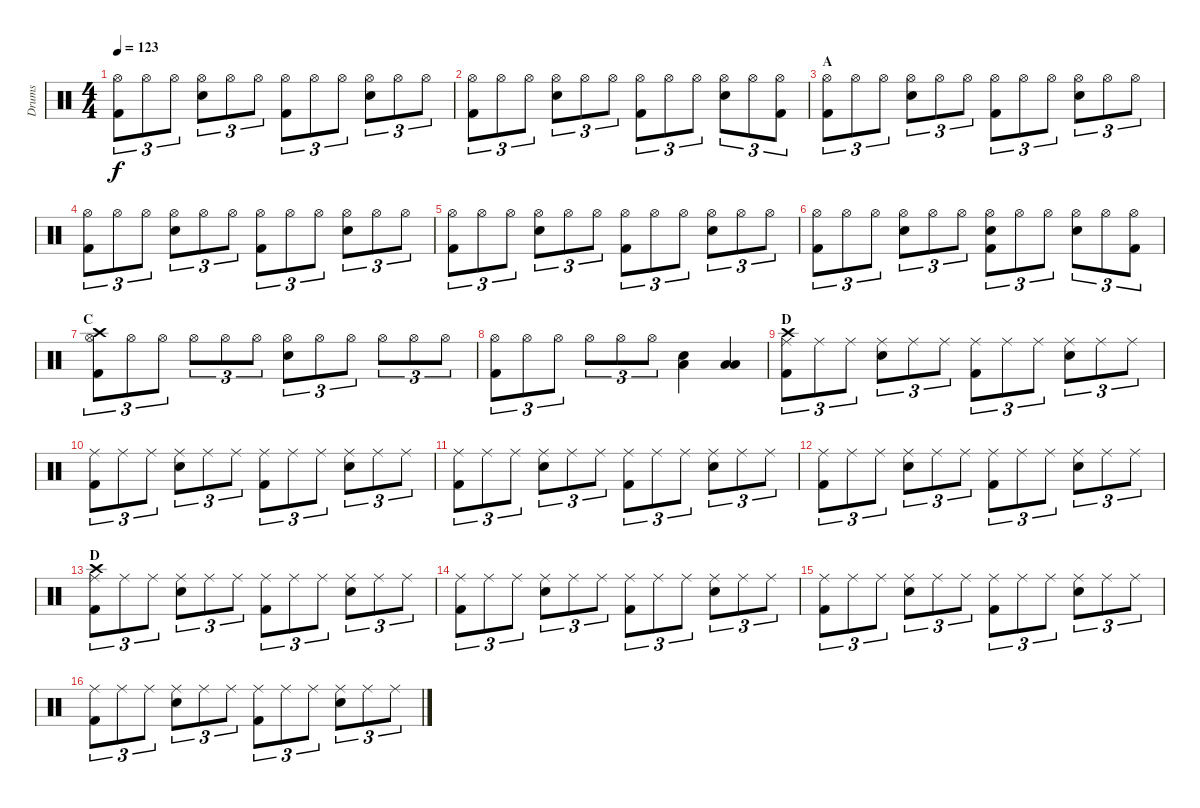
\track ("Drums" "Drums") {instrument percussion}
\staff {score}
\articulation defaults
\ts (4 4)
\tempo 123
\clef neutral
\ks c
("Hi-Hat (open)" "Kick (hit) 2").8{tu (3 2) dy f} "Hi-Hat (open)".8{tu (3 2)} "Hi-Hat (open)".8{tu (3 2)} ("Hi-Hat (open)" "Snare (hit) 2").8{tu (3 2)} "Hi-Hat (open)".8{tu (3 2)} "Hi-Hat (open)".8{tu (3 2)} ("Hi-Hat (open)" "Kick (hit) 2").8{tu (3 2)} "Hi-Hat (open)".8{tu (3 2)} "Hi-Hat (open)".8{tu (3 2)} ("Hi-Hat (open)" "Snare (hit) 2").8{tu (3 2)} "Hi-Hat (open)".8{tu (3 2)} "Hi-Hat (open)".8{tu (3 2)} |
("Hi-Hat (open)" "Kick (hit) 2").8{tu (3 2)} "Hi-Hat (open)".8{tu (3 2)} "Hi-Hat (open)".8{tu (3 2)} ("Hi-Hat (open)" "Snare (hit) 2").8{tu (3 2)} "Hi-Hat (open)".8{tu (3 2)} "Hi-Hat (open)".8{tu (3 2)} ("Hi-Hat (open)" "Kick (hit) 2").8{tu (3 2)} "Hi-Hat (open)".8{tu (3 2)} "Hi-Hat (open)".8{tu (3 2)} ("Hi-Hat (open)" "Snare (hit) 2").8{tu (3 2)} "Hi-Hat (open)".8{tu (3 2)} ("Hi-Hat (open)" "Kick (hit) 2").8{tu (3 2)} |
\section ("" "A")
("Hi-Hat (open)" "Kick (hit) 2").8{tu (3 2)} "Hi-Hat (open)".8{tu (3 2)} "Hi-Hat (open)".8{tu (3 2)} ("Hi-Hat (open)" "Snare (hit) 2").8{tu (3 2)} "Hi-Hat (open)".8{tu (3 2)} "Hi-Hat (open)".8{tu (3 2)} ("Hi-Hat (open)" "Kick (hit) 2").8{tu (3 2)} "Hi-Hat (open)".8{tu (3 2)} "Hi-Hat (open)".8{tu (3 2)} ("Hi-Hat (open)" "Snare (hit) 2").8{tu (3 2)} "Hi-Hat (open)".8{tu (3 2)} "Hi-Hat (open)".8{tu (3 2)} |
("Hi-Hat (open)" "Kick (hit) 2").8{tu (3 2)} "Hi-Hat (open)".8{tu (3 2)} "Hi-Hat (open)".8{tu (3 2)} ("Hi-Hat (open)" "Snare (hit) 2").8{tu (3 2)} "Hi-Hat (open)".8{tu (3 2)} "Hi-Hat (open)".8{tu (3 2)} ("Hi-Hat (open)" "Kick (hit) 2").8{tu (3 2)} "Hi-Hat (open)".8{tu (3 2)} "Hi-Hat (open)".8{tu (3 2)} ("Hi-Hat (open)" "Snare (hit) 2").8{tu (3 2)} "Hi-Hat (open)".8{tu (3 2)} "Hi-Hat (open)".8{tu (3 2)} |
("Hi-Hat (open)" "Kick (hit) 2").8{tu (3 2)} "Hi-Hat (open)".8{tu (3 2)} "Hi-Hat (open)".8{tu (3 2)} ("Hi-Hat (open)" "Snare (hit) 2").8{tu (3 2)} "Hi-Hat (open)".8{tu (3 2)} "Hi-Hat (open)".8{tu (3 2)} ("Hi-Hat (open)" "Kick (hit) 2").8{tu (3 2)} "Hi-Hat (open)".8{tu (3 2)} "Hi-Hat (open)".8{tu (3 2)} ("Hi-Hat (open)" "Snare (hit) 2").8{tu (3 2)} "Hi-Hat (open)".8{tu (3 2)} "Hi-Hat (open)".8{tu (3 2)} |
("Hi-Hat (open)" "Kick (hit) 2").8{tu (3 2)} "Hi-Hat (open)".8{tu (3 2)} "Hi-Hat (open)".8{tu (3 2)} ("Hi-Hat (open)" "Snare (hit) 2").8{tu (3 2)} "Hi-Hat (open)".8{tu (3 2)} "Hi-Hat (open)".8{tu (3 2)} ("Hi-Hat (open)" "Snare (hit) 2" "Kick (hit) 2").8{tu (3 2)} "Hi-Hat (open)".8{tu (3 2)} "Hi-Hat (open)".8{tu (3 2)} ("Hi-Hat (open)" "Snare (hit) 2").8{tu (3 2)} "Hi-Hat (open)".8{tu (3 2)} ("Hi-Hat (open)" "Kick (hit) 2").8{tu (3 2)} |
\section ("" "C")
("Crash high (hit)" "Hi-Hat (open)" "Kick (hit) 2").8{tu (3 2)} "Hi-Hat (open)".8{tu (3 2)} "Hi-Hat (open)".8{tu (3 2)} "Hi-Hat (open)".8{tu (3 2)} "Hi-Hat (open)".8{tu (3 2)} "Hi-Hat (open)".8{tu (3 2)} ("Hi-Hat (open)" "Snare (hit) 2").8{tu (3 2)} "Hi-Hat (open)".8{tu (3 2)} "Hi-Hat (open)".8{tu (3 2)} "Hi-Hat (open)".8{tu (3 2)} "Hi-Hat (open)".8{tu (3 2)} "Hi-Hat (open)".8{tu (3 2)} |
("Hi-Hat (open)" "Kick (hit) 2").8{tu (3 2)} "Hi-Hat (open)".8{tu (3 2)} "Hi-Hat (open)".8{tu (3 2)} "Hi-Hat (open)".8{tu (3 2)} "Hi-Hat (open)".8{tu (3 2)} "Hi-Hat (open)".8{tu (3 2)} ("Snare (hit) 2" "Low Floor Tom (hit)").4 ("Low Tom (hit)" "Low Floor Tom (hit)").4 |
\section ("" "D")
("Crash high (hit)" "Ride (middle)" "Kick (hit) 2").8{tu (3 2)} "Ride (middle)".8{tu (3 2)} "Ride (middle)".8{tu (3 2)} ("Ride (middle)" "Snare (hit) 2").8{tu (3 2)} "Ride (middle)".8{tu (3 2)} "Ride (middle)".8{tu (3 2)} ("Ride (middle)" "Kick (hit) 2").8{tu (3 2)} "Ride (middle)".8{tu (3 2)} "Ride (middle)".8{tu (3 2)} ("Ride (middle)" "Snare (hit) 2").8{tu (3 2)} "Ride (middle)".8{tu (3 2)} "Ride (middle)".8{tu (3 2)} |
("Ride (middle)" "Kick (hit) 2").8{tu (3 2)} "Ride (middle)".8{tu (3 2)} "Ride (middle)".8{tu (3 2)} ("Ride (middle)" "Snare (hit) 2").8{tu (3 2)} "Ride (middle)".8{tu (3 2)} "Ride (middle)".8{tu (3 2)} ("Ride (middle)" "Kick (hit) 2").8{tu (3 2)} "Ride (middle)".8{tu (3 2)} "Ride (middle)".8{tu (3 2)} ("Ride (middle)" "Snare (hit) 2").8{tu (3 2)} "Ride (middle)".8{tu (3 2)} "Ride (middle)".8{tu (3 2)} |
("Ride (middle)" "Kick (hit) 2").8{tu (3 2)} "Ride (middle)".8{tu (3 2)} "Ride (middle)".8{tu (3 2)} ("Ride (middle)" "Snare (hit) 2").8{tu (3 2)} "Ride (middle)".8{tu (3 2)} "Ride (middle)".8{tu (3 2)} ("Ride (middle)" "Kick (hit) 2").8{tu (3 2)} "Ride (middle)".8{tu (3 2)} "Ride (middle)".8{tu (3 2)} ("Ride (middle)" "Snare (hit) 2").8{tu (3 2)} "Ride (middle)".8{tu (3 2)} "Ride (middle)".8{tu (3 2)} |
("Ride (middle)" "Kick (hit) 2").8{tu (3 2)} "Ride (middle)".8{tu (3 2)} "Ride (middle)".8{tu (3 2)} ("Ride (middle)" "Snare (hit) 2").8{tu (3 2)} "Ride (middle)".8{tu (3 2)} "Ride (middle)".8{tu (3 2)} ("Ride (middle)" "Kick (hit) 2").8{tu (3 2)} "Ride (middle)".8{tu (3 2)} "Ride (middle)".8{tu (3 2)} ("Ride (middle)" "Snare (hit) 2").8{tu (3 2)} "Ride (middle)".8{tu (3 2)} "Ride (middle)".8{tu (3 2)} |
\section ("" "D")
("Crash high (hit)" "Ride (middle)" "Kick (hit) 2").8{tu (3 2)} "Ride (middle)".8{tu (3 2)} "Ride (middle)".8{tu (3 2)} ("Ride (middle)" "Snare (hit) 2").8{tu (3 2)} "Ride (middle)".8{tu (3 2)} "Ride (middle)".8{tu (3 2)} ("Ride (middle)" "Kick (hit) 2").8{tu (3 2)} "Ride (middle)".8{tu (3 2)} "Ride (middle)".8{tu (3 2)} ("Ride (middle)" "Snare (hit) 2").8{tu (3 2)} "Ride (middle)".8{tu (3 2)} "Ride (middle)".8{tu (3 2)} |
("Ride (middle)" "Kick (hit) 2").8{tu (3 2)} "Ride (middle)".8{tu (3 2)} "Ride (middle)".8{tu (3 2)} ("Ride (middle)" "Snare (hit) 2").8{tu (3 2)} "Ride (middle)".8{tu (3 2)} "Ride (middle)".8{tu (3 2)} ("Ride (middle)" "Kick (hit) 2").8{tu (3 2)} "Ride (middle)".8{tu (3 2)} "Ride (middle)".8{tu (3 2)} ("Ride (middle)" "Snare (hit) 2").8{tu (3 2)} "Ride (middle)".8{tu (3 2)} "Ride (middle)".8{tu (3 2)} |
("Ride (middle)" "Kick (hit) 2").8{tu (3 2)} "Ride (middle)".8{tu (3 2)} "Ride (middle)".8{tu (3 2)} ("Ride (middle)" "Snare (hit) 2").8{tu (3 2)} "Ride (middle)".8{tu (3 2)} "Ride (middle)".8{tu (3 2)} ("Ride (middle)" "Kick (hit) 2").8{tu (3 2)} "Ride (middle)".8{tu (3 2)} "Ride (middle)".8{tu (3 2)} ("Ride (middle)" "Snare (hit) 2").8{tu (3 2)} "Ride (middle)".8{tu (3 2)} "Ride (middle)".8{tu (3 2)} |
("Ride (middle)" "Kick (hit) 2").8{tu (3 2)} "Ride (middle)".8{tu (3 2)} "Ride (middle)".8{tu (3 2)} ("Ride (middle)" "Snare (hit) 2").8{tu (3 2)} "Ride (middle)".8{tu (3 2)} "Ride (middle)".8{tu (3 2)} ("Ride (middle)" "Kick (hit) 2").8{tu (3 2)} "Ride (middle)".8{tu (3 2)} "Ride (middle)".8{tu (3 2)} ("Ride (middle)" "Snare (hit) 2").8{tu (3 2)} "Ride (middle)".8{tu (3 2)} "Ride (middle)".8{tu (3 2)}
